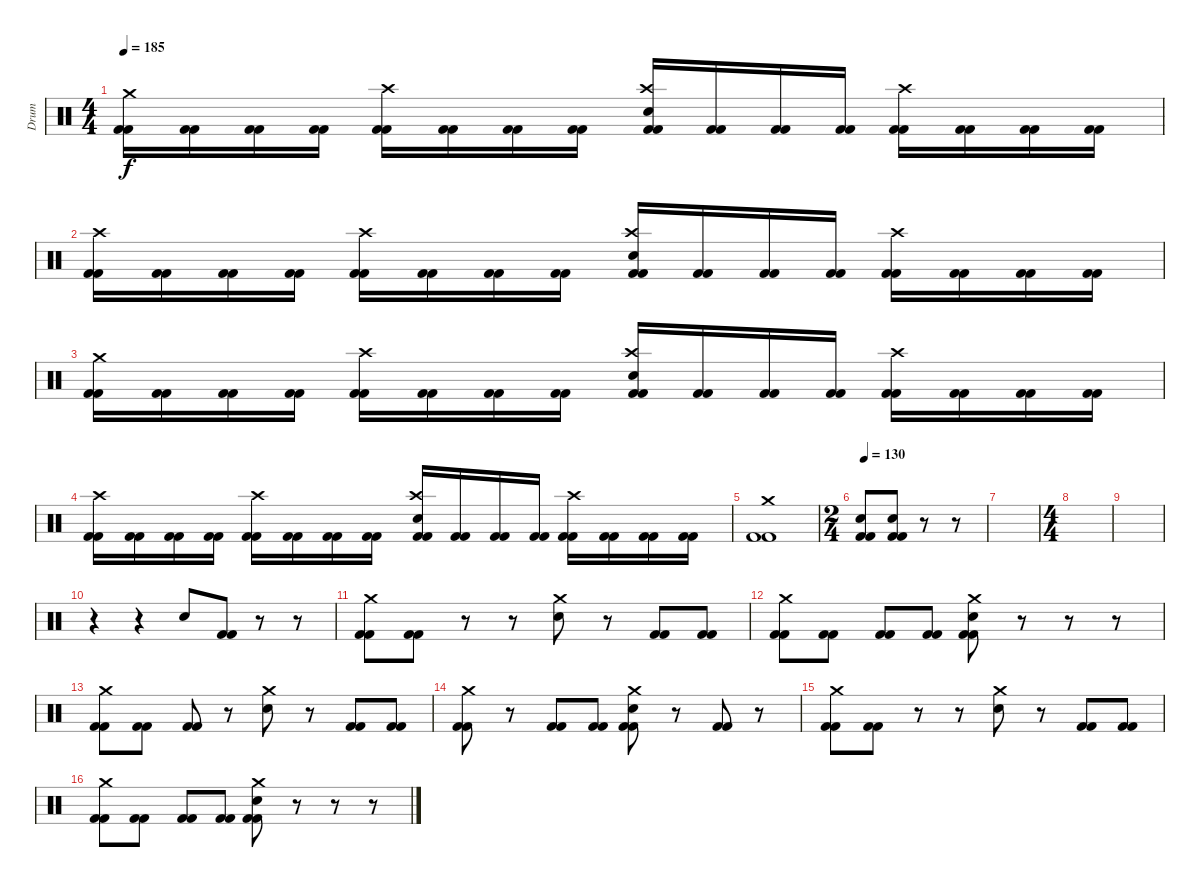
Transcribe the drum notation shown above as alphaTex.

\track ("Drum" "Drum") {instrument percussion}
\staff {score}
\articulation defaults
\ts (4 4)
\tempo 185
\clef neutral
\ks c
("Crash medium (hit)" "Kick (hit) 2" "Kick (hit) 2").16{dy f} ("Kick (hit) 2" "Kick (hit) 2").16 ("Kick (hit) 2" "Kick (hit) 2").16 ("Kick (hit) 2" "Kick (hit) 2").16 ("Crash high (hit)" "Kick (hit) 2" "Kick (hit) 2").16 ("Kick (hit) 2" "Kick (hit) 2").16 ("Kick (hit) 2" "Kick (hit) 2").16 ("Kick (hit) 2" "Kick (hit) 2").16 ("Crash high (hit)" "Electric Snare (hit)" "Kick (hit) 2" "Kick (hit) 2").16 ("Kick (hit) 2" "Kick (hit) 2").16 ("Kick (hit) 2" "Kick (hit) 2").16 ("Kick (hit) 2" "Kick (hit) 2").16 ("Crash high (hit)" "Kick (hit) 2" "Kick (hit) 2").16 ("Kick (hit) 2" "Kick (hit) 2").16 ("Kick (hit) 2" "Kick (hit) 2").16 ("Kick (hit) 2" "Kick (hit) 2").16 |
("Crash high (hit)" "Kick (hit) 2" "Kick (hit) 2").16 ("Kick (hit) 2" "Kick (hit) 2").16 ("Kick (hit) 2" "Kick (hit) 2").16 ("Kick (hit) 2" "Kick (hit) 2").16 ("Crash high (hit)" "Kick (hit) 2" "Kick (hit) 2").16 ("Kick (hit) 2" "Kick (hit) 2").16 ("Kick (hit) 2" "Kick (hit) 2").16 ("Kick (hit) 2" "Kick (hit) 2").16 ("Crash high (hit)" "Electric Snare (hit)" "Kick (hit) 2" "Kick (hit) 2").16 ("Kick (hit) 2" "Kick (hit) 2").16 ("Kick (hit) 2" "Kick (hit) 2").16 ("Kick (hit) 2" "Kick (hit) 2").16 ("Crash high (hit)" "Kick (hit) 2" "Kick (hit) 2").16 ("Kick (hit) 2" "Kick (hit) 2").16 ("Kick (hit) 2" "Kick (hit) 2").16 ("Kick (hit) 2" "Kick (hit) 2").16 |
("Crash medium (hit)" "Kick (hit) 2" "Kick (hit) 2").16 ("Kick (hit) 2" "Kick (hit) 2").16 ("Kick (hit) 2" "Kick (hit) 2").16 ("Kick (hit) 2" "Kick (hit) 2").16 ("Crash high (hit)" "Kick (hit) 2" "Kick (hit) 2").16 ("Kick (hit) 2" "Kick (hit) 2").16 ("Kick (hit) 2" "Kick (hit) 2").16 ("Kick (hit) 2" "Kick (hit) 2").16 ("Crash high (hit)" "Electric Snare (hit)" "Kick (hit) 2" "Kick (hit) 2").16 ("Kick (hit) 2" "Kick (hit) 2").16 ("Kick (hit) 2" "Kick (hit) 2").16 ("Kick (hit) 2" "Kick (hit) 2").16 ("Crash high (hit)" "Kick (hit) 2" "Kick (hit) 2").16 ("Kick (hit) 2" "Kick (hit) 2").16 ("Kick (hit) 2" "Kick (hit) 2").16 ("Kick (hit) 2" "Kick (hit) 2").16 |
("Crash high (hit)" "Kick (hit) 2" "Kick (hit) 2").16 ("Kick (hit) 2" "Kick (hit) 2").16 ("Kick (hit) 2" "Kick (hit) 2").16 ("Kick (hit) 2" "Kick (hit) 2").16 ("Crash high (hit)" "Kick (hit) 2" "Kick (hit) 2").16 ("Kick (hit) 2" "Kick (hit) 2").16 ("Kick (hit) 2" "Kick (hit) 2").16 ("Kick (hit) 2" "Kick (hit) 2").16 ("Crash high (hit)" "Electric Snare (hit)" "Kick (hit) 2" "Kick (hit) 2").16 ("Kick (hit) 2" "Kick (hit) 2").16 ("Kick (hit) 2" "Kick (hit) 2").16 ("Kick (hit) 2" "Kick (hit) 2").16 ("Crash high (hit)" "Kick (hit) 2" "Kick (hit) 2").16 ("Kick (hit) 2" "Kick (hit) 2").16 ("Kick (hit) 2" "Kick (hit) 2").16 ("Kick (hit) 2" "Kick (hit) 2").16 |
("Crash medium (hit)" "Kick (hit) 2" "Kick (hit) 2").1 |
\ts (2 4)
\tempo 130
("Electric Snare (hit)" "Kick (hit) 2" "Kick (hit) 2").8 ("Electric Snare (hit)" "Kick (hit) 2" "Kick (hit) 2").8 r.8 r.8 |
|
\ts (4 4)
|
|
r.4 r.4 "Electric Snare (hit)".8 ("Kick (hit) 2" "Kick (hit) 2").8 r.8 r.8 |
("Crash medium (hit)" "Kick (hit) 2" "Kick (hit) 2").8 ("Kick (hit) 2" "Kick (hit) 2").8 r.8 r.8 ("Crash medium (hit)" "Electric Snare (hit)").8 r.8 ("Kick (hit) 2" "Kick (hit) 2").8 ("Kick (hit) 2" "Kick (hit) 2").8 |
("Crash medium (hit)" "Kick (hit) 2" "Kick (hit) 2").8 ("Kick (hit) 2" "Kick (hit) 2").8 ("Kick (hit) 2" "Kick (hit) 2").8 ("Kick (hit) 2" "Kick (hit) 2").8 ("Crash medium (hit)" "Electric Snare (hit)" "Kick (hit) 2" "Kick (hit) 2").8 r.8 r.8 r.8 |
("Crash medium (hit)" "Kick (hit) 2" "Kick (hit) 2").8 ("Kick (hit) 2" "Kick (hit) 2").8 ("Kick (hit) 2" "Kick (hit) 2").8 r.8 ("Crash medium (hit)" "Electric Snare (hit)").8 r.8 ("Kick (hit) 2" "Kick (hit) 2").8 ("Kick (hit) 2" "Kick (hit) 2").8 |
("Crash medium (hit)" "Kick (hit) 2" "Kick (hit) 2").8 r.8 ("Kick (hit) 2" "Kick (hit) 2").8 ("Kick (hit) 2" "Kick (hit) 2").8 ("Crash medium (hit)" "Electric Snare (hit)" "Kick (hit) 2" "Kick (hit) 2").8 r.8 ("Kick (hit) 2" "Kick (hit) 2").8 r.8 |
("Crash medium (hit)" "Kick (hit) 2" "Kick (hit) 2").8 ("Kick (hit) 2" "Kick (hit) 2").8 r.8 r.8 ("Crash medium (hit)" "Electric Snare (hit)").8 r.8 ("Kick (hit) 2" "Kick (hit) 2").8 ("Kick (hit) 2" "Kick (hit) 2").8 |
("Crash medium (hit)" "Kick (hit) 2" "Kick (hit) 2").8 ("Kick (hit) 2" "Kick (hit) 2").8 ("Kick (hit) 2" "Kick (hit) 2").8 ("Kick (hit) 2" "Kick (hit) 2").8 ("Crash medium (hit)" "Electric Snare (hit)" "Kick (hit) 2" "Kick (hit) 2").8 r.8 r.8 r.8
